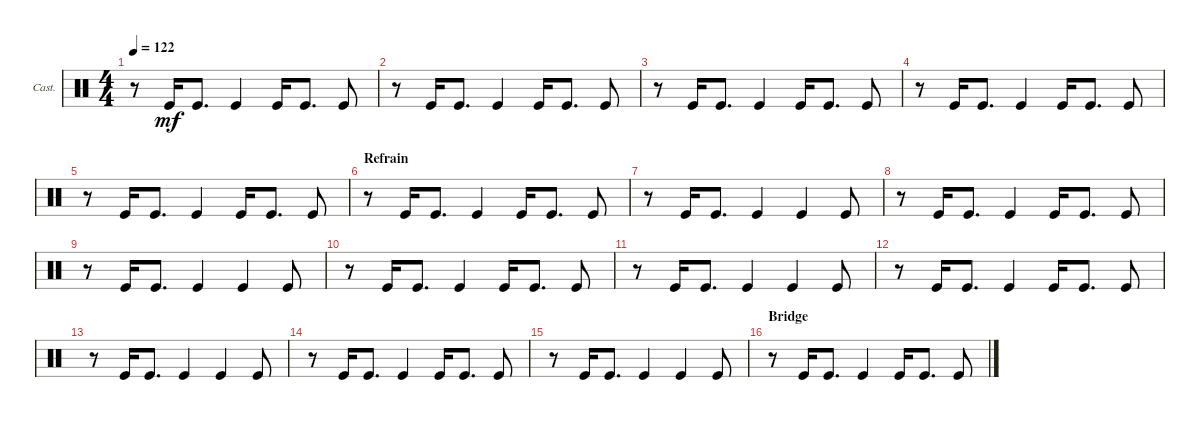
\defaultSystemsLayout 4
\bracketExtendMode groupsimilarinstruments
\firstSystemTrackNameOrientation horizontal
\otherSystemsTrackNameOrientation horizontal
\track ("Castanets" "Cast.") {instrument percussion}
\staff {score}
\articulation defaults
\ts (4 4)
\tempo 122
\clef neutral
\ks c
r.8{dy mf} "Kick (hit)".16 "Kick (hit)".8{d} "Kick (hit)".4 "Kick (hit)".16 "Kick (hit)".8{d} "Kick (hit)".8 |
r.8 "Kick (hit)".16 "Kick (hit)".8{d} "Kick (hit)".4 "Kick (hit)".16 "Kick (hit)".8{d} "Kick (hit)".8 |
r.8 "Kick (hit)".16 "Kick (hit)".8{d} "Kick (hit)".4 "Kick (hit)".16 "Kick (hit)".8{d} "Kick (hit)".8 |
r.8 "Kick (hit)".16 "Kick (hit)".8{d} "Kick (hit)".4 "Kick (hit)".16 "Kick (hit)".8{d} "Kick (hit)".8 |
r.8 "Kick (hit)".16 "Kick (hit)".8{d} "Kick (hit)".4 "Kick (hit)".16 "Kick (hit)".8{d} "Kick (hit)".8 |
\section ("" "Refrain")
\scale
0.237113 r.8 "Kick (hit)".16 "Kick (hit)".8{d} "Kick (hit)".4 "Kick (hit)".16 "Kick (hit)".8{d} "Kick (hit)".8 |
r.8 "Kick (hit)".16 "Kick (hit)".8{d} "Kick (hit)".4 "Kick (hit)".4 "Kick (hit)".8 |
r.8 "Kick (hit)".16 "Kick (hit)".8{d} "Kick (hit)".4 "Kick (hit)".16 "Kick (hit)".8{d} "Kick (hit)".8 |
r.8 "Kick (hit)".16 "Kick (hit)".8{d} "Kick (hit)".4 "Kick (hit)".4 "Kick (hit)".8 |
r.8 "Kick (hit)".16 "Kick (hit)".8{d} "Kick (hit)".4 "Kick (hit)".16 "Kick (hit)".8{d} "Kick (hit)".8 |
r.8 "Kick (hit)".16 "Kick (hit)".8{d} "Kick (hit)".4 "Kick (hit)".4 "Kick (hit)".8 |
r.8 "Kick (hit)".16 "Kick (hit)".8{d} "Kick (hit)".4 "Kick (hit)".16 "Kick (hit)".8{d} "Kick (hit)".8 |
r.8 "Kick (hit)".16 "Kick (hit)".8{d} "Kick (hit)".4 "Kick (hit)".4 "Kick (hit)".8 |
r.8 "Kick (hit)".16 "Kick (hit)".8{d} "Kick (hit)".4 "Kick (hit)".16 "Kick (hit)".8{d} "Kick (hit)".8 |
r.8 "Kick (hit)".16 "Kick (hit)".8{d} "Kick (hit)".4 "Kick (hit)".4 "Kick (hit)".8 |
\section ("" "Bridge")
r.8 "Kick (hit)".16 "Kick (hit)".8{d} "Kick (hit)".4 "Kick (hit)".16 "Kick (hit)".8{d} "Kick (hit)".8
